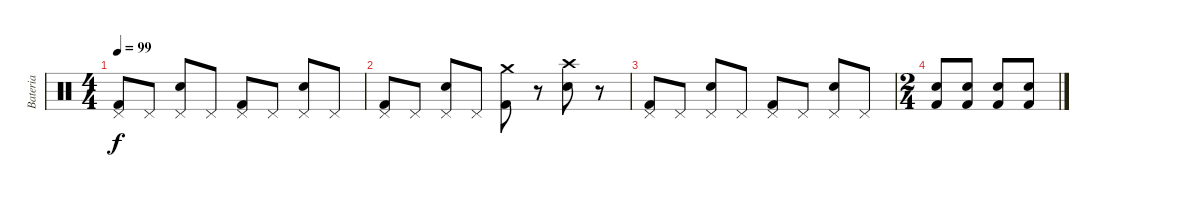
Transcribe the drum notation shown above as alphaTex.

\track ("Bateria" "Bateria") {instrument percussion}
\staff {score}
\articulation defaults
\ts (4 4)
\tempo 99
\clef neutral
\ks c
("Pedal Hi-Hat (hit)" "Kick (hit) 2").8{dy f volume 0} "Pedal Hi-Hat (hit)".8 ("Pedal Hi-Hat (hit)" "Electric Snare (hit)").8 "Pedal Hi-Hat (hit)".8 ("Pedal Hi-Hat (hit)" "Kick (hit) 2").8 "Pedal Hi-Hat (hit)".8 ("Pedal Hi-Hat (hit)" "Electric Snare (hit)").8 "Pedal Hi-Hat (hit)".8 |
("Pedal Hi-Hat (hit)" "Kick (hit) 2").8 "Pedal Hi-Hat (hit)".8 ("Pedal Hi-Hat (hit)" "Electric Snare (hit)").8 "Pedal Hi-Hat (hit)".8 ("Crash medium (hit)" "Kick (hit) 2").8 r.8 ("Crash high (hit)" "Electric Snare (hit)").8 r.8 |
("Pedal Hi-Hat (hit)" "Kick (hit) 2").8 "Pedal Hi-Hat (hit)".8 ("Pedal Hi-Hat (hit)" "Electric Snare (hit)").8 "Pedal Hi-Hat (hit)".8 ("Pedal Hi-Hat (hit)" "Kick (hit) 2").8 "Pedal Hi-Hat (hit)".8 ("Pedal Hi-Hat (hit)" "Electric Snare (hit)").8 "Pedal Hi-Hat (hit)".8 |
\ts (2 4)
("Electric Snare (hit)" "Kick (hit) 2").8 ("Electric Snare (hit)" "Kick (hit) 2").8 ("Electric Snare (hit)" "Kick (hit) 2").8 ("Electric Snare (hit)" "Kick (hit) 2").8
